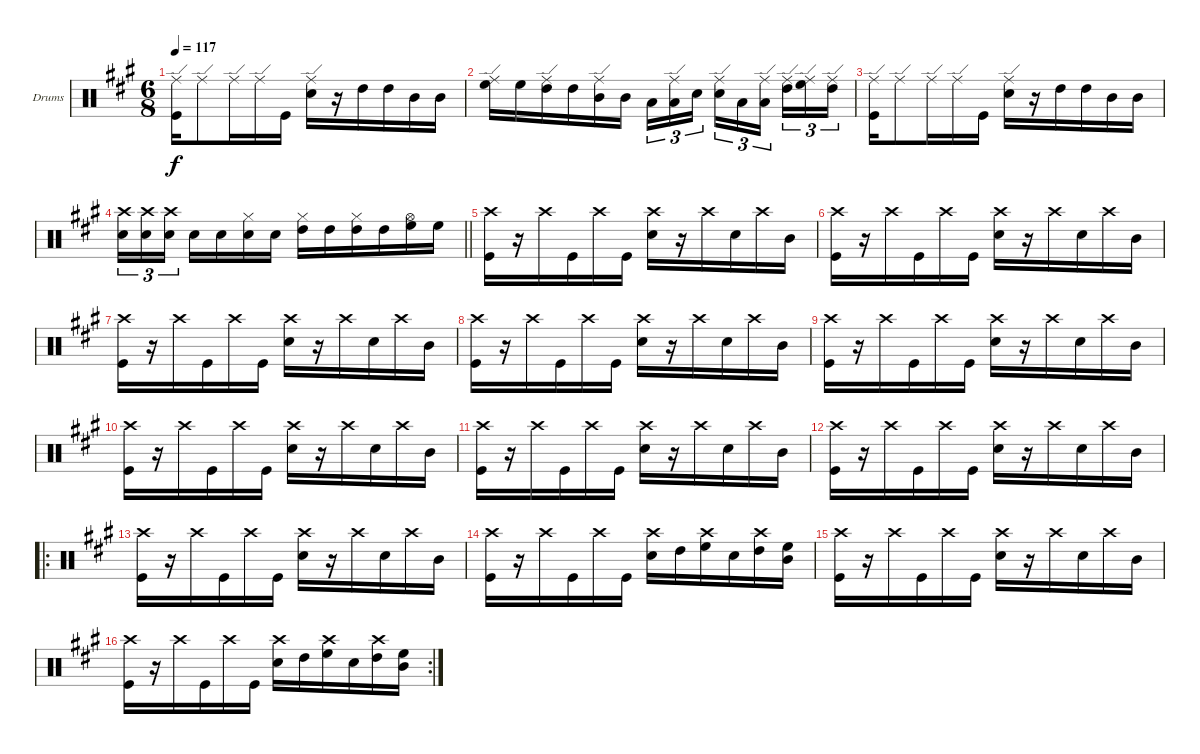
\bracketExtendMode groupsimilarinstruments
\firstSystemTrackNameOrientation horizontal
\otherSystemsTrackNameOrientation horizontal
\track ("Drumkit" "Drums") {instrument percussion}
\staff {score}
\articulation defaults
\ts (6 8)
\tempo 117
\clef neutral
\ks a
("Ride (edge)" "Kick (hit)").16{dy f} "Ride (edge)".8 "Ride (edge)".16 "Ride (edge)".16 "Kick (hit)".16 ("Ride (edge)" "Snare (hit) 2").16 r.16 "High Tom (hit)".16 "High Tom (hit)".16 "Mid Tom (hit)".16 "Mid Tom (hit)".16 |
("Ride (edge)" "High Floor Tom (hit)").16 "High Floor Tom (hit)".16 ("Ride (edge)" "High Tom (hit)").16 "High Tom (hit)".16 ("Ride (edge)" "Mid Tom (hit)").16 "Mid Tom (hit)".16 "Low Tom (hit)".16{tu (3 2)} ("Ride (edge)" "Low Tom (hit)").16{tu (3 2)} "Snare (hit) 2".16{tu (3 2)} ("Ride (edge)" "Snare (hit) 2").16{tu (3 2)} "Low Tom (hit)".16{tu (3 2)} ("Ride (edge)" "Low Tom (hit)").16{tu (3 2)} ("Ride (edge)" "High Tom (hit)").16{tu (3 2)} ("Ride (edge)" "High Floor Tom (hit)").16{tu (3 2)} ("Ride (edge)" "High Tom (hit)").16{tu (3 2)} |
("Ride (edge)" "Kick (hit)").16 "Ride (edge)".8 "Ride (edge)".16 "Ride (edge)".16 "Kick (hit)".16 ("Ride (edge)" "Snare (hit) 2").16 r.16 "High Tom (hit)".16 "High Tom (hit)".16 "Mid Tom (hit)".16 "Mid Tom (hit)".16 |
\barLineRight lightlight
("Crash high (hit)" "Snare (hit) 2").16{tu (3 2)} ("Crash high (hit)" "Snare (hit) 2").16{tu (3 2)} ("Crash high (hit)" "Snare (hit) 2").16{tu (3 2)} "Snare (hit) 2".16 "Snare (hit) 2".16 ("Hi-Hat (closed)" "Snare (hit) 2").16 "Snare (hit) 2".16 ("Hi-Hat (closed)" "High Tom (hit)").16 "High Tom (hit)".16 ("Hi-Hat (closed)" "High Tom (hit)").16 "High Tom (hit)".16 ("Hi-Hat (open)" "High Floor Tom (hit)").16 "High Floor Tom (hit)".16 |
("Crash high (hit)" "Kick (hit)").16 r.16 "Crash high (hit)".16 "Kick (hit)".16 "Crash high (hit)".16 "Kick (hit)".16 ("Crash high (hit)" "Snare (hit) 2").16 r.16 "Crash high (hit)".16 "Snare (hit) 2".16 "Crash high (hit)".16 "Mid Tom (hit)".16 |
("Crash high (hit)" "Kick (hit)").16 r.16 "Crash high (hit)".16 "Kick (hit)".16 "Crash high (hit)".16 "Kick (hit)".16 ("Crash high (hit)" "Snare (hit) 2").16 r.16 "Crash high (hit)".16 "Snare (hit) 2".16 "Crash high (hit)".16 "Mid Tom (hit)".16 |
("Crash high (hit)" "Kick (hit)").16 r.16 "Crash high (hit)".16 "Kick (hit)".16 "Crash high (hit)".16 "Kick (hit)".16 ("Crash high (hit)" "Snare (hit) 2").16 r.16 "Crash high (hit)".16 "Snare (hit) 2".16 "Crash high (hit)".16 "Mid Tom (hit)".16 |
("Crash high (hit)" "Kick (hit)").16 r.16 "Crash high (hit)".16 "Kick (hit)".16 "Crash high (hit)".16 "Kick (hit)".16 ("Crash high (hit)" "Snare (hit) 2").16 r.16 "Crash high (hit)".16 "Snare (hit) 2".16 "Crash high (hit)".16 "Mid Tom (hit)".16 |
("Crash high (hit)" "Kick (hit)").16 r.16 "Crash high (hit)".16 "Kick (hit)".16 "Crash high (hit)".16 "Kick (hit)".16 ("Crash high (hit)" "Snare (hit) 2").16 r.16 "Crash high (hit)".16 "Snare (hit) 2".16 "Crash high (hit)".16 "Mid Tom (hit)".16 |
("Crash high (hit)" "Kick (hit)").16 r.16 "Crash high (hit)".16 "Kick (hit)".16 "Crash high (hit)".16 "Kick (hit)".16 ("Crash high (hit)" "Snare (hit) 2").16 r.16 "Crash high (hit)".16 "Snare (hit) 2".16 "Crash high (hit)".16 "Mid Tom (hit)".16 |
("Crash high (hit)" "Kick (hit)").16 r.16 "Crash high (hit)".16 "Kick (hit)".16 "Crash high (hit)".16 "Kick (hit)".16 ("Crash high (hit)" "Snare (hit) 2").16 r.16 "Crash high (hit)".16 "Snare (hit) 2".16 "Crash high (hit)".16 "Mid Tom (hit)".16 |
("Crash high (hit)" "Kick (hit)").16 r.16 "Crash high (hit)".16 "Kick (hit)".16 "Crash high (hit)".16 "Kick (hit)".16 ("Crash high (hit)" "Snare (hit) 2").16 r.16 "Crash high (hit)".16 "Snare (hit) 2".16 "Crash high (hit)".16 "Mid Tom (hit)".16 |
\ro
("Crash high (hit)" "Kick (hit)").16 r.16 "Crash high (hit)".16 "Kick (hit)".16 "Crash high (hit)".16 "Kick (hit)".16 ("Crash high (hit)" "Snare (hit) 2").16 r.16 "Crash high (hit)".16 "Snare (hit) 2".16 "Crash high (hit)".16 "Mid Tom (hit)".16 |
("Crash high (hit)" "Kick (hit)").16 r.16 "Crash high (hit)".16 "Kick (hit)".16 "Crash high (hit)".16 "Kick (hit)".16 ("Crash high (hit)" "Snare (hit) 2").16 "High Tom (hit)".16 ("High Floor Tom (hit)" "Crash high (hit)").16 "Snare (hit) 2".16 ("High Tom (hit)" "Crash high (hit)").16 ("High Floor Tom (hit)" "Mid Tom (hit)").16 |
("Crash high (hit)" "Kick (hit)").16 r.16 "Crash high (hit)".16 "Kick (hit)".16 "Crash high (hit)".16 "Kick (hit)".16 ("Crash high (hit)" "Snare (hit) 2").16 r.16 "Crash high (hit)".16 "Snare (hit) 2".16 "Crash high (hit)".16 "Mid Tom (hit)".16 |
\rc 2
("Crash high (hit)" "Kick (hit)").16 r.16 "Crash high (hit)".16 "Kick (hit)".16 "Crash high (hit)".16 "Kick (hit)".16 ("Crash high (hit)" "Snare (hit) 2").16 "High Tom (hit)".16 ("High Floor Tom (hit)" "Crash high (hit)").16 "Snare (hit) 2".16 ("High Tom (hit)" "Crash high (hit)").16 ("High Floor Tom (hit)" "Mid Tom (hit)").16
